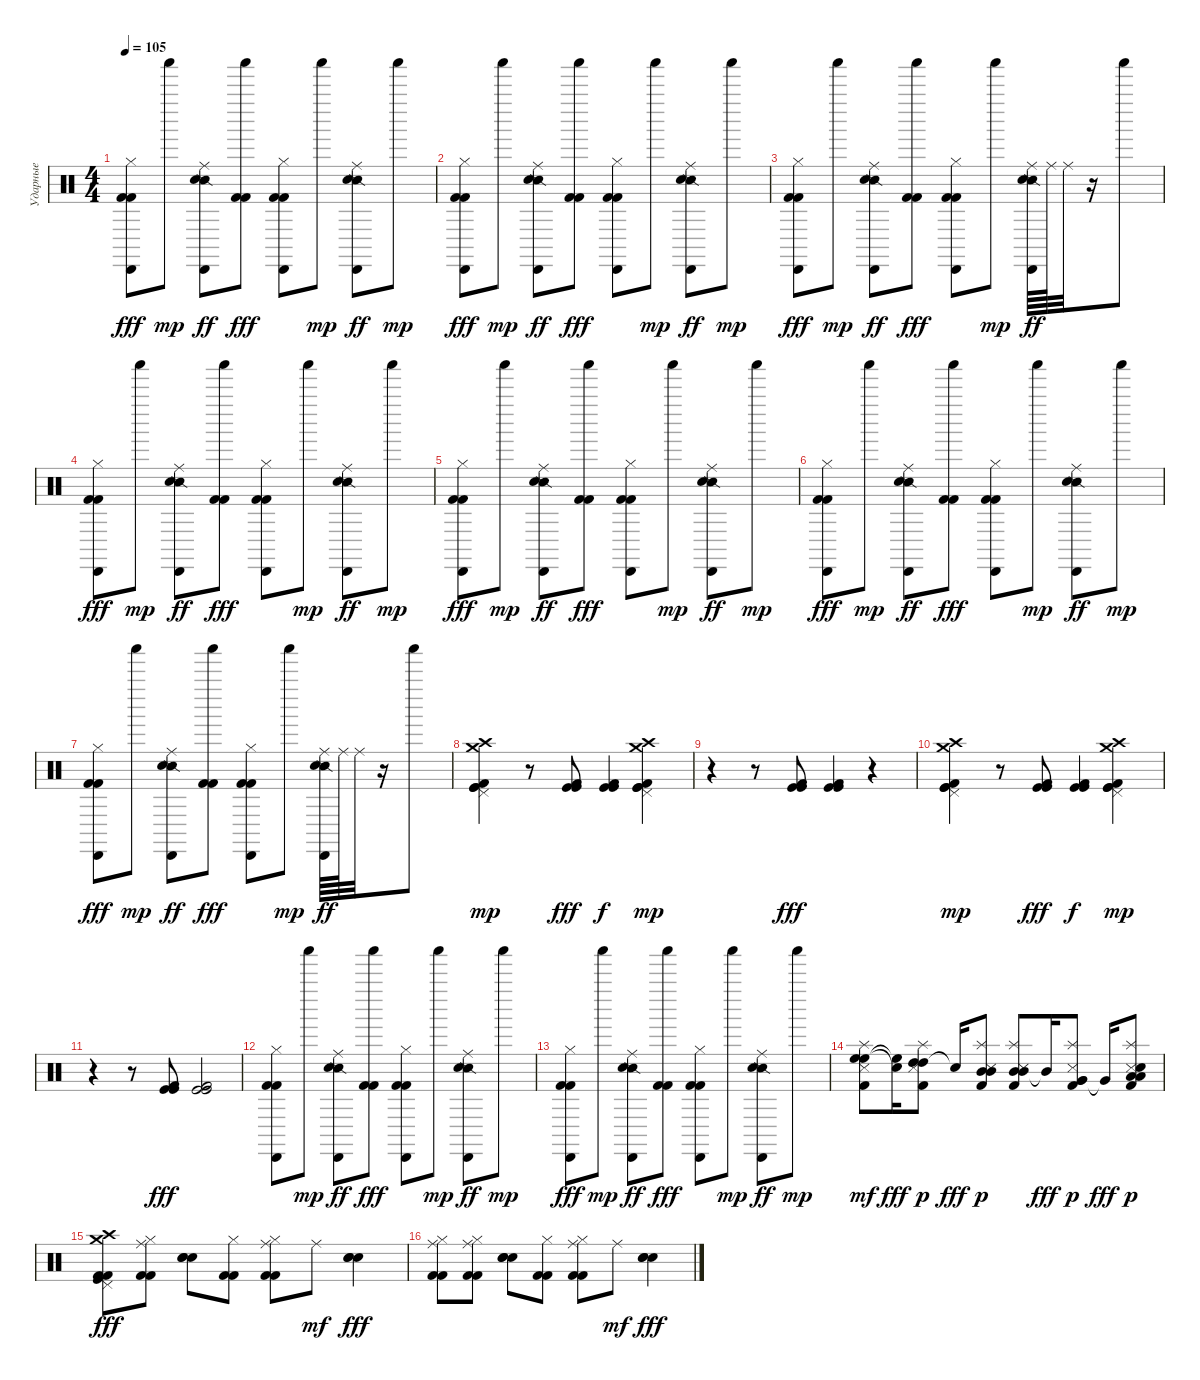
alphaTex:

\track ("Ударные" "Ударные") {instrument percussion}
\staff {score}
\articulation defaults
\ts (4 4)
\tempo 105
\clef neutral
\ks c
("Cabasa (hit)" "Hi-Hat (closed)" "Kick (hit) 2" "Kick (hit) 2").8{dy fff} "Shaker (hit)".8{dy mp} ("Cabasa (hit)" "Ride (middle)" "Snare (side stick) 2" "Hand Clap (hit)").8{dy ff} ("Shaker (hit)" "Kick (hit) 2" "Kick (hit) 2").8{dy fff} ("Cabasa (hit)" "Hi-Hat (closed)" "Kick (hit) 2" "Kick (hit) 2").8 "Shaker (hit)".8{dy mp} ("Cabasa (hit)" "Ride (middle)" "Snare (side stick) 2" "Hand Clap (hit)").8{dy ff} "Shaker (hit)".8{dy mp} |
("Cabasa (hit)" "Hi-Hat (closed)" "Kick (hit) 2" "Kick (hit) 2").8{dy fff} "Shaker (hit)".8{dy mp} ("Cabasa (hit)" "Ride (middle)" "Snare (side stick) 2" "Hand Clap (hit)").8{dy ff} ("Shaker (hit)" "Kick (hit) 2" "Kick (hit) 2").8{dy fff} ("Cabasa (hit)" "Hi-Hat (closed)" "Kick (hit) 2" "Kick (hit) 2").8 "Shaker (hit)".8{dy mp} ("Cabasa (hit)" "Ride (middle)" "Snare (side stick) 2" "Hand Clap (hit)").8{dy ff} "Shaker (hit)".8{dy mp} |
("Cabasa (hit)" "Hi-Hat (closed)" "Kick (hit) 2" "Kick (hit) 2").8{dy fff} "Shaker (hit)".8{dy mp} ("Cabasa (hit)" "Ride (middle)" "Snare (side stick) 2" "Hand Clap (hit)").8{dy ff} ("Shaker (hit)" "Kick (hit) 2" "Kick (hit) 2").8{dy fff} ("Cabasa (hit)" "Hi-Hat (closed)" "Kick (hit) 2" "Kick (hit) 2").8 "Shaker (hit)".8{dy mp} ("Cabasa (hit)" "Ride (middle)" "Snare (side stick) 2" "Hand Clap (hit)").64{dy ff} "Ride (middle)".64 "Ride (middle)".32 r.16 "Shaker (hit)".8 |
("Cabasa (hit)" "Hi-Hat (closed)" "Kick (hit) 2" "Kick (hit) 2").8{dy fff} "Shaker (hit)".8{dy mp} ("Cabasa (hit)" "Ride (middle)" "Snare (side stick) 2" "Hand Clap (hit)").8{dy ff} ("Shaker (hit)" "Kick (hit) 2" "Kick (hit) 2").8{dy fff} ("Cabasa (hit)" "Hi-Hat (closed)" "Kick (hit) 2" "Kick (hit) 2").8 "Shaker (hit)".8{dy mp} ("Cabasa (hit)" "Ride (middle)" "Snare (side stick) 2" "Hand Clap (hit)").8{dy ff} "Shaker (hit)".8{dy mp} |
("Cabasa (hit)" "Hi-Hat (closed)" "Kick (hit) 2" "Kick (hit) 2").8{dy fff} "Shaker (hit)".8{dy mp} ("Cabasa (hit)" "Ride (middle)" "Snare (side stick) 2" "Hand Clap (hit)").8{dy ff} ("Shaker (hit)" "Kick (hit) 2" "Kick (hit) 2").8{dy fff} ("Cabasa (hit)" "Hi-Hat (closed)" "Kick (hit) 2" "Kick (hit) 2").8 "Shaker (hit)".8{dy mp} ("Cabasa (hit)" "Ride (middle)" "Snare (side stick) 2" "Hand Clap (hit)").8{dy ff} "Shaker (hit)".8{dy mp} |
("Cabasa (hit)" "Hi-Hat (closed)" "Kick (hit) 2" "Kick (hit) 2").8{dy fff} "Shaker (hit)".8{dy mp} ("Cabasa (hit)" "Ride (middle)" "Snare (side stick) 2" "Hand Clap (hit)").8{dy ff} ("Shaker (hit)" "Kick (hit) 2" "Kick (hit) 2").8{dy fff} ("Cabasa (hit)" "Hi-Hat (closed)" "Kick (hit) 2" "Kick (hit) 2").8 "Shaker (hit)".8{dy mp} ("Cabasa (hit)" "Ride (middle)" "Snare (side stick) 2" "Hand Clap (hit)").8{dy ff} "Shaker (hit)".8{dy mp} |
("Cabasa (hit)" "Hi-Hat (closed)" "Kick (hit) 2" "Kick (hit) 2").8{dy fff} "Shaker (hit)".8{dy mp} ("Cabasa (hit)" "Ride (middle)" "Snare (side stick) 2" "Hand Clap (hit)").8{dy ff} ("Shaker (hit)" "Kick (hit) 2" "Kick (hit) 2").8{dy fff} ("Cabasa (hit)" "Hi-Hat (closed)" "Kick (hit) 2" "Kick (hit) 2").8 "Shaker (hit)".8{dy mp} ("Cabasa (hit)" "Ride (middle)" "Snare (side stick) 2" "Hand Clap (hit)").64{dy ff} "Ride (middle)".64 "Ride (middle)".32 r.16 "Shaker (hit)".8 |
("Kick (hit) 2" "Kick (hit)" "Pedal Hi-Hat (hit)" "Kick (hit)" "Crash medium (hit)" "Crash high (hit)").4{dy mp} r.8 ("Kick (hit) 2" "Kick (hit)" "Kick (hit)").8{dy fff} ("Kick (hit) 2" "Kick (hit)" "Kick (hit)").4{dy f} ("Kick (hit) 2" "Kick (hit)" "Pedal Hi-Hat (hit)" "Kick (hit)" "Crash medium (hit)" "Crash high (hit)").4{dy mp} |
r.4 r.8 ("Kick (hit) 2" "Kick (hit)" "Kick (hit)").8{dy fff} ("Kick (hit) 2" "Kick (hit)" "Kick (hit)").4 r.4 |
("Kick (hit) 2" "Kick (hit)" "Pedal Hi-Hat (hit)" "Kick (hit)" "Crash medium (hit)" "Crash high (hit)").4{dy mp} r.8 ("Kick (hit) 2" "Kick (hit)" "Kick (hit)").8{dy fff} ("Kick (hit) 2" "Kick (hit)" "Kick (hit)").4{dy f} ("Kick (hit) 2" "Kick (hit)" "Pedal Hi-Hat (hit)" "Kick (hit)" "Crash medium (hit)" "Crash high (hit)").4{dy mp} |
r.4 r.8 ("Kick (hit) 2" "Kick (hit)" "Kick (hit)").8{dy fff} ("Kick (hit) 2" "Kick (hit)" "Kick (hit)").2 |
("Cabasa (hit)" "Hi-Hat (closed)" "Kick (hit) 2" "Kick (hit) 2").8 "Shaker (hit)".8{dy mp} ("Cabasa (hit)" "Ride (middle)" "Snare (side stick) 2" "Hand Clap (hit)").8{dy ff} ("Shaker (hit)" "Kick (hit) 2" "Kick (hit) 2").8{dy fff} ("Cabasa (hit)" "Hi-Hat (closed)" "Kick (hit) 2" "Kick (hit) 2").8 "Shaker (hit)".8{dy mp} ("Cabasa (hit)" "Ride (middle)" "Snare (side stick) 2" "Hand Clap (hit)").8{dy ff} "Shaker (hit)".8{dy mp} |
("Cabasa (hit)" "Hi-Hat (closed)" "Kick (hit) 2" "Kick (hit) 2").8{dy fff} "Shaker (hit)".8{dy mp} ("Cabasa (hit)" "Ride (middle)" "Snare (side stick) 2" "Hand Clap (hit)").8{dy ff} ("Shaker (hit)" "Kick (hit) 2" "Kick (hit) 2").8{dy fff} ("Cabasa (hit)" "Hi-Hat (closed)" "Kick (hit) 2" "Kick (hit) 2").8 "Shaker (hit)".8{dy mp} ("Cabasa (hit)" "Ride (middle)" "Snare (side stick) 2" "Hand Clap (hit)").8{dy ff} "Shaker (hit)".8{dy mp} |
("High Floor Tom (hit)" "High Floor Tom (hit)" "Snare (side stick) 3" "Kick (hit) 2" "Splash (hit)").8{dy mf balance 6} ("High Floor Tom (hit)"{t} "Snare (hit)"{t}).16{dy fff} ("High Tom (hit)" "High Tom (hit)" "Snare (side stick) 3" "Kick (hit) 2" "Splash (hit)").8{dy p balance 7} "Snare (hit)"{t}.16{dy fff} ("Mid Tom (hit)" "Mid Tom (hit)" "Snare (side stick) 3" "Kick (hit) 2" "Splash (hit)").8{dy p} ("Mid Tom (hit)" "Mid Tom (hit)" "Snare (side stick) 3" "Kick (hit) 2" "Splash (hit)").8 "Mid Tom (hit)"{t}.16{dy fff} ("Very Low Tom (hit)" "Very Low Tom (hit)" "Snare (side stick) 3" "Kick (hit) 2" "Splash (hit)").8{dy p} "Very Low Tom (hit)"{t}.16{dy fff} ("Low Floor Tom (hit)" "Low Floor Tom (hit)" "Snare (side stick) 3" "Kick (hit) 2" "Electric Snare (hit)" "Splash (hit)").8{dy p} |
("Kick (hit) 2" "Kick (hit)" "Pedal Hi-Hat (hit)" "Kick (hit) 2" "Crash medium (hit)" "Crash high (hit)").8{dy fff} ("Ride (middle)" "Hi-Hat (closed)" "Kick (hit) 2" "Kick (hit) 2").8 ("Snare (hit) 2" "Electric Snare (hit)" "Hand Clap (hit)").8 ("Hi-Hat (closed)" "Kick (hit) 2" "Kick (hit) 2").8 ("Ride (middle)" "Hi-Hat (closed)" "Kick (hit) 2" "Kick (hit) 2").8 "Ride (middle)".8{dy mf} ("Snare (hit) 2" "Electric Snare (hit)" "Hand Clap (hit)").4{dy fff} |
("Ride (middle)" "Hi-Hat (closed)" "Kick (hit) 2" "Kick (hit) 2").8 ("Ride (middle)" "Hi-Hat (closed)" "Kick (hit) 2" "Kick (hit) 2").8 ("Snare (hit) 2" "Electric Snare (hit)" "Hand Clap (hit)").8 ("Hi-Hat (closed)" "Kick (hit) 2" "Kick (hit) 2").8 ("Ride (middle)" "Hi-Hat (closed)" "Kick (hit) 2" "Kick (hit) 2").8 "Ride (middle)".8{dy mf} ("Snare (hit) 2" "Electric Snare (hit)" "Hand Clap (hit)").4{dy fff}
